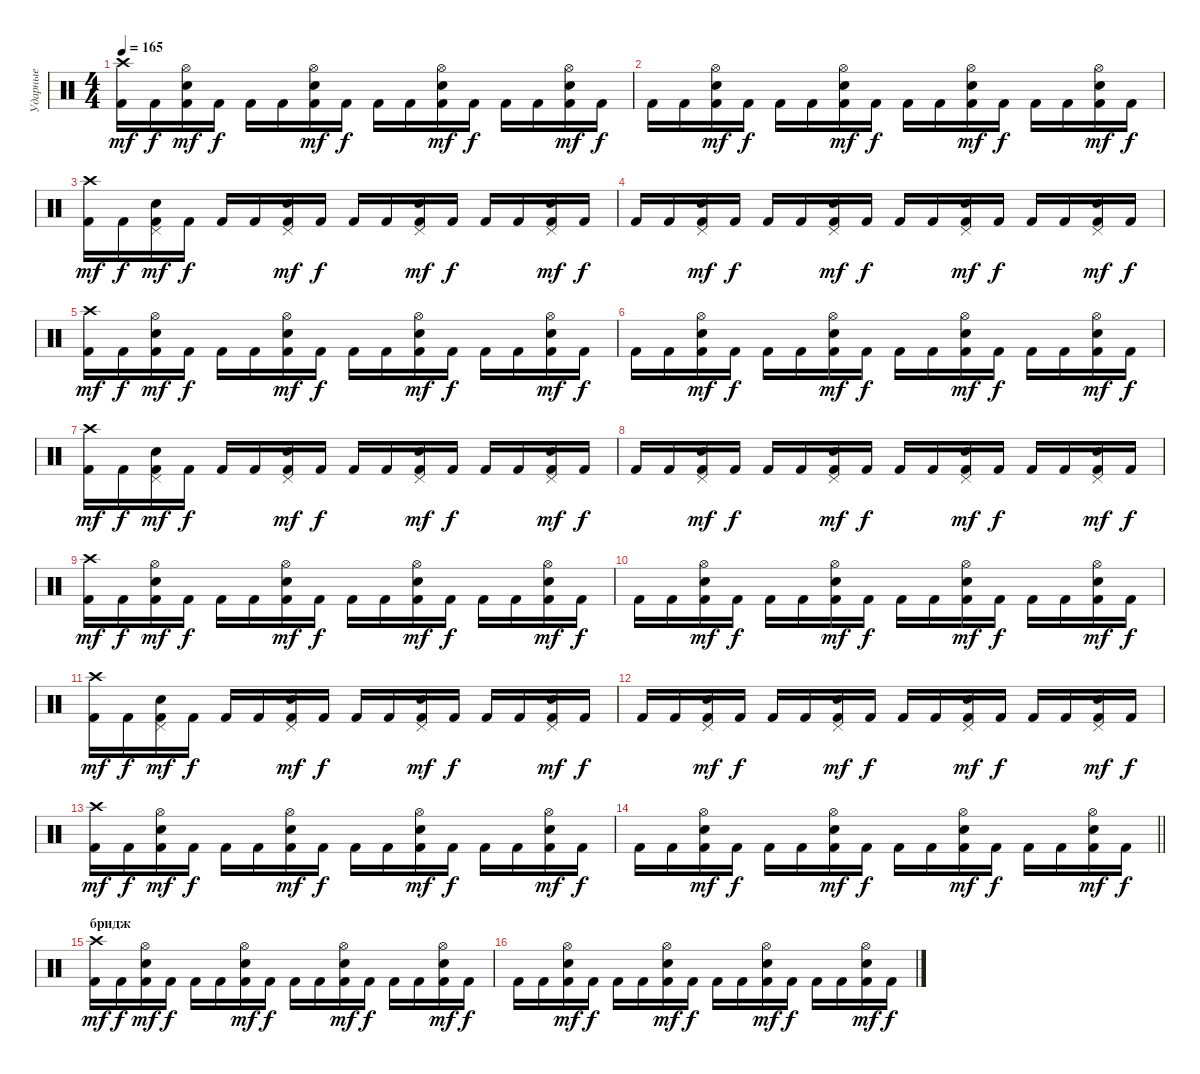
\track ("Ударные" "Ударные") {instrument percussion}
\staff {score}
\articulation defaults
\ts (4 4)
\tempo 165
\clef neutral
\ks c
("Kick (hit) 2" "Crash high (hit)").16{dy mf} "Kick (hit) 2".16{dy f} ("Kick (hit) 2" "Electric Snare (hit)" "Hi-Hat (open)").16{dy mf} "Kick (hit) 2".16{dy f} "Kick (hit) 2".16 "Kick (hit) 2".16 ("Kick (hit) 2" "Electric Snare (hit)" "Hi-Hat (open)").16{dy mf} "Kick (hit) 2".16{dy f} "Kick (hit) 2".16 "Kick (hit) 2".16 ("Kick (hit) 2" "Electric Snare (hit)" "Hi-Hat (open)").16{dy mf} "Kick (hit) 2".16{dy f} "Kick (hit) 2".16 "Kick (hit) 2".16 ("Kick (hit) 2" "Electric Snare (hit)" "Hi-Hat (open)").16{dy mf} "Kick (hit) 2".16{dy f} |
"Kick (hit) 2".16 "Kick (hit) 2".16 ("Kick (hit) 2" "Electric Snare (hit)" "Hi-Hat (open)").16{dy mf} "Kick (hit) 2".16{dy f} "Kick (hit) 2".16 "Kick (hit) 2".16 ("Kick (hit) 2" "Electric Snare (hit)" "Hi-Hat (open)").16{dy mf} "Kick (hit) 2".16{dy f} "Kick (hit) 2".16 "Kick (hit) 2".16 ("Kick (hit) 2" "Electric Snare (hit)" "Hi-Hat (open)").16{dy mf} "Kick (hit) 2".16{dy f} "Kick (hit) 2".16 "Kick (hit) 2".16 ("Kick (hit) 2" "Electric Snare (hit)" "Hi-Hat (open)").16{dy mf} "Kick (hit) 2".16{dy f} |
("Kick (hit) 2" "Crash high (hit)").16{dy mf} "Kick (hit) 2".16{dy f} ("Kick (hit) 2" "Electric Snare (hit)" "Pedal Hi-Hat (hit)").16{dy mf} "Kick (hit) 2".16{dy f} "Kick (hit) 2".16 "Kick (hit) 2".16 ("Kick (hit) 2" "Electric Snare (hit)" "Pedal Hi-Hat (hit)").16{dy mf} "Kick (hit) 2".16{dy f} "Kick (hit) 2".16 "Kick (hit) 2".16 ("Kick (hit) 2" "Electric Snare (hit)" "Pedal Hi-Hat (hit)").16{dy mf} "Kick (hit) 2".16{dy f} "Kick (hit) 2".16 "Kick (hit) 2".16 ("Kick (hit) 2" "Electric Snare (hit)" "Pedal Hi-Hat (hit)").16{dy mf} "Kick (hit) 2".16{dy f} |
"Kick (hit) 2".16 "Kick (hit) 2".16 ("Kick (hit) 2" "Electric Snare (hit)" "Pedal Hi-Hat (hit)").16{dy mf} "Kick (hit) 2".16{dy f} "Kick (hit) 2".16 "Kick (hit) 2".16 ("Kick (hit) 2" "Electric Snare (hit)" "Pedal Hi-Hat (hit)").16{dy mf} "Kick (hit) 2".16{dy f} "Kick (hit) 2".16 "Kick (hit) 2".16 ("Kick (hit) 2" "Electric Snare (hit)" "Pedal Hi-Hat (hit)").16{dy mf} "Kick (hit) 2".16{dy f} "Kick (hit) 2".16 "Kick (hit) 2".16 ("Kick (hit) 2" "Electric Snare (hit)" "Pedal Hi-Hat (hit)").16{dy mf} "Kick (hit) 2".16{dy f} |
("Kick (hit) 2" "Crash high (hit)").16{dy mf} "Kick (hit) 2".16{dy f} ("Kick (hit) 2" "Electric Snare (hit)" "Hi-Hat (open)").16{dy mf} "Kick (hit) 2".16{dy f} "Kick (hit) 2".16 "Kick (hit) 2".16 ("Kick (hit) 2" "Electric Snare (hit)" "Hi-Hat (open)").16{dy mf} "Kick (hit) 2".16{dy f} "Kick (hit) 2".16 "Kick (hit) 2".16 ("Kick (hit) 2" "Electric Snare (hit)" "Hi-Hat (open)").16{dy mf} "Kick (hit) 2".16{dy f} "Kick (hit) 2".16 "Kick (hit) 2".16 ("Kick (hit) 2" "Electric Snare (hit)" "Hi-Hat (open)").16{dy mf} "Kick (hit) 2".16{dy f} |
"Kick (hit) 2".16 "Kick (hit) 2".16 ("Kick (hit) 2" "Electric Snare (hit)" "Hi-Hat (open)").16{dy mf} "Kick (hit) 2".16{dy f} "Kick (hit) 2".16 "Kick (hit) 2".16 ("Kick (hit) 2" "Electric Snare (hit)" "Hi-Hat (open)").16{dy mf} "Kick (hit) 2".16{dy f} "Kick (hit) 2".16 "Kick (hit) 2".16 ("Kick (hit) 2" "Electric Snare (hit)" "Hi-Hat (open)").16{dy mf} "Kick (hit) 2".16{dy f} "Kick (hit) 2".16 "Kick (hit) 2".16 ("Kick (hit) 2" "Electric Snare (hit)" "Hi-Hat (open)").16{dy mf} "Kick (hit) 2".16{dy f} |
("Kick (hit) 2" "Crash high (hit)").16{dy mf} "Kick (hit) 2".16{dy f} ("Kick (hit) 2" "Electric Snare (hit)" "Pedal Hi-Hat (hit)").16{dy mf} "Kick (hit) 2".16{dy f} "Kick (hit) 2".16 "Kick (hit) 2".16 ("Kick (hit) 2" "Electric Snare (hit)" "Pedal Hi-Hat (hit)").16{dy mf} "Kick (hit) 2".16{dy f} "Kick (hit) 2".16 "Kick (hit) 2".16 ("Kick (hit) 2" "Electric Snare (hit)" "Pedal Hi-Hat (hit)").16{dy mf} "Kick (hit) 2".16{dy f} "Kick (hit) 2".16 "Kick (hit) 2".16 ("Kick (hit) 2" "Electric Snare (hit)" "Pedal Hi-Hat (hit)").16{dy mf} "Kick (hit) 2".16{dy f} |
"Kick (hit) 2".16 "Kick (hit) 2".16 ("Kick (hit) 2" "Electric Snare (hit)" "Pedal Hi-Hat (hit)").16{dy mf} "Kick (hit) 2".16{dy f} "Kick (hit) 2".16 "Kick (hit) 2".16 ("Kick (hit) 2" "Electric Snare (hit)" "Pedal Hi-Hat (hit)").16{dy mf} "Kick (hit) 2".16{dy f} "Kick (hit) 2".16 "Kick (hit) 2".16 ("Kick (hit) 2" "Electric Snare (hit)" "Pedal Hi-Hat (hit)").16{dy mf} "Kick (hit) 2".16{dy f} "Kick (hit) 2".16 "Kick (hit) 2".16 ("Kick (hit) 2" "Electric Snare (hit)" "Pedal Hi-Hat (hit)").16{dy mf} "Kick (hit) 2".16{dy f} |
("Kick (hit) 2" "Crash high (hit)").16{dy mf} "Kick (hit) 2".16{dy f} ("Kick (hit) 2" "Electric Snare (hit)" "Hi-Hat (open)").16{dy mf} "Kick (hit) 2".16{dy f} "Kick (hit) 2".16 "Kick (hit) 2".16 ("Kick (hit) 2" "Electric Snare (hit)" "Hi-Hat (open)").16{dy mf} "Kick (hit) 2".16{dy f} "Kick (hit) 2".16 "Kick (hit) 2".16 ("Kick (hit) 2" "Electric Snare (hit)" "Hi-Hat (open)").16{dy mf} "Kick (hit) 2".16{dy f} "Kick (hit) 2".16 "Kick (hit) 2".16 ("Kick (hit) 2" "Electric Snare (hit)" "Hi-Hat (open)").16{dy mf} "Kick (hit) 2".16{dy f} |
"Kick (hit) 2".16 "Kick (hit) 2".16 ("Kick (hit) 2" "Electric Snare (hit)" "Hi-Hat (open)").16{dy mf} "Kick (hit) 2".16{dy f} "Kick (hit) 2".16 "Kick (hit) 2".16 ("Kick (hit) 2" "Electric Snare (hit)" "Hi-Hat (open)").16{dy mf} "Kick (hit) 2".16{dy f} "Kick (hit) 2".16 "Kick (hit) 2".16 ("Kick (hit) 2" "Electric Snare (hit)" "Hi-Hat (open)").16{dy mf} "Kick (hit) 2".16{dy f} "Kick (hit) 2".16 "Kick (hit) 2".16 ("Kick (hit) 2" "Electric Snare (hit)" "Hi-Hat (open)").16{dy mf} "Kick (hit) 2".16{dy f} |
("Kick (hit) 2" "Crash high (hit)").16{dy mf} "Kick (hit) 2".16{dy f} ("Kick (hit) 2" "Electric Snare (hit)" "Pedal Hi-Hat (hit)").16{dy mf} "Kick (hit) 2".16{dy f} "Kick (hit) 2".16 "Kick (hit) 2".16 ("Kick (hit) 2" "Electric Snare (hit)" "Pedal Hi-Hat (hit)").16{dy mf} "Kick (hit) 2".16{dy f} "Kick (hit) 2".16 "Kick (hit) 2".16 ("Kick (hit) 2" "Electric Snare (hit)" "Pedal Hi-Hat (hit)").16{dy mf} "Kick (hit) 2".16{dy f} "Kick (hit) 2".16 "Kick (hit) 2".16 ("Kick (hit) 2" "Electric Snare (hit)" "Pedal Hi-Hat (hit)").16{dy mf} "Kick (hit) 2".16{dy f} |
"Kick (hit) 2".16 "Kick (hit) 2".16 ("Kick (hit) 2" "Electric Snare (hit)" "Pedal Hi-Hat (hit)").16{dy mf} "Kick (hit) 2".16{dy f} "Kick (hit) 2".16 "Kick (hit) 2".16 ("Kick (hit) 2" "Electric Snare (hit)" "Pedal Hi-Hat (hit)").16{dy mf} "Kick (hit) 2".16{dy f} "Kick (hit) 2".16 "Kick (hit) 2".16 ("Kick (hit) 2" "Electric Snare (hit)" "Pedal Hi-Hat (hit)").16{dy mf} "Kick (hit) 2".16{dy f} "Kick (hit) 2".16 "Kick (hit) 2".16 ("Kick (hit) 2" "Electric Snare (hit)" "Pedal Hi-Hat (hit)").16{dy mf} "Kick (hit) 2".16{dy f} |
("Kick (hit) 2" "Crash high (hit)").16{dy mf} "Kick (hit) 2".16{dy f} ("Kick (hit) 2" "Electric Snare (hit)" "Hi-Hat (open)").16{dy mf} "Kick (hit) 2".16{dy f} "Kick (hit) 2".16 "Kick (hit) 2".16 ("Kick (hit) 2" "Electric Snare (hit)" "Hi-Hat (open)").16{dy mf} "Kick (hit) 2".16{dy f} "Kick (hit) 2".16 "Kick (hit) 2".16 ("Kick (hit) 2" "Electric Snare (hit)" "Hi-Hat (open)").16{dy mf} "Kick (hit) 2".16{dy f} "Kick (hit) 2".16 "Kick (hit) 2".16 ("Kick (hit) 2" "Electric Snare (hit)" "Hi-Hat (open)").16{dy mf} "Kick (hit) 2".16{dy f} |
\barLineRight lightlight "Kick (hit) 2".16 "Kick (hit) 2".16
("Kick (hit) 2" "Electric Snare (hit)" "Hi-Hat (open)").16{dy mf} "Kick (hit) 2".16{dy f} "Kick (hit) 2".16 "Kick (hit) 2".16 ("Kick (hit) 2" "Electric Snare (hit)" "Hi-Hat (open)").16{dy mf} "Kick (hit) 2".16{dy f} "Kick (hit) 2".16 "Kick (hit) 2".16 ("Kick (hit) 2" "Electric Snare (hit)" "Hi-Hat (open)").16{dy mf} "Kick (hit) 2".16{dy f} "Kick (hit) 2".16 "Kick (hit) 2".16 ("Kick (hit) 2" "Electric Snare (hit)" "Hi-Hat (open)").16{dy mf} "Kick (hit) 2".16{dy f} |
\section ("" "бридж")
("Kick (hit) 2" "Crash high (hit)").16{dy mf} "Kick (hit) 2".16{dy f} ("Kick (hit) 2" "Electric Snare (hit)" "Hi-Hat (open)").16{dy mf} "Kick (hit) 2".16{dy f} "Kick (hit) 2".16 "Kick (hit) 2".16 ("Kick (hit) 2" "Electric Snare (hit)" "Hi-Hat (open)").16{dy mf} "Kick (hit) 2".16{dy f} "Kick (hit) 2".16 "Kick (hit) 2".16 ("Kick (hit) 2" "Electric Snare (hit)" "Hi-Hat (open)").16{dy mf} "Kick (hit) 2".16{dy f} "Kick (hit) 2".16 "Kick (hit) 2".16 ("Kick (hit) 2" "Electric Snare (hit)" "Hi-Hat (open)").16{dy mf} "Kick (hit) 2".16{dy f} |
"Kick (hit) 2".16 "Kick (hit) 2".16 ("Kick (hit) 2" "Electric Snare (hit)" "Hi-Hat (open)").16{dy mf} "Kick (hit) 2".16{dy f} "Kick (hit) 2".16 "Kick (hit) 2".16 ("Kick (hit) 2" "Electric Snare (hit)" "Hi-Hat (open)").16{dy mf} "Kick (hit) 2".16{dy f} "Kick (hit) 2".16 "Kick (hit) 2".16 ("Kick (hit) 2" "Electric Snare (hit)" "Hi-Hat (open)").16{dy mf} "Kick (hit) 2".16{dy f} "Kick (hit) 2".16 "Kick (hit) 2".16 ("Kick (hit) 2" "Electric Snare (hit)" "Hi-Hat (open)").16{dy mf} "Kick (hit) 2".16{dy f}
